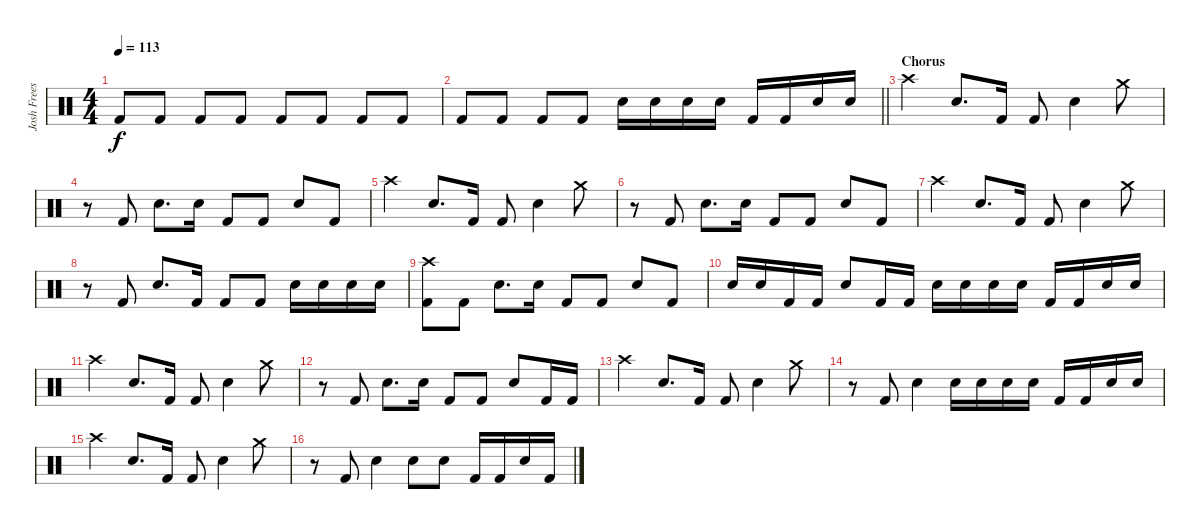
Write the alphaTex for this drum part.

\track ("Josh Freese (Studio Drummer)" "Josh Frees") {instrument percussion}
\staff {score}
\articulation defaults
\ts (4 4)
\tempo 113
\clef neutral
\ks c "Kick (hit) 2".8{dy f} "Kick (hit) 2".8 "Kick (hit) 2".8 "Kick (hit) 2".8 "Kick (hit) 2".8 "Kick (hit) 2".8 "Kick (hit) 2".8 "Kick (hit) 2".8
|
\barLineRight lightlight "Kick (hit) 2".8 "Kick (hit) 2".8 "Kick (hit) 2".8 "Kick (hit) 2".8 "Electric Snare (hit)".16 "Electric Snare (hit)".16 "Snare (hit) 2".16 "Snare (hit) 2".16 "Kick (hit) 2".16 "Kick (hit) 2".16 "Snare (hit) 2".16 "Snare (hit) 2".16
|
\section ("" "Chorus")
"Crash high (hit)".4 "Electric Snare (hit)".8{d} "Kick (hit) 2".16 "Kick (hit) 2".8 "Electric Snare (hit)".4 "Crash medium (hit)".8 |
r.8 "Kick (hit) 2".8 "Electric Snare (hit)".8{d} "Electric Snare (hit)".16 "Kick (hit) 2".8 "Kick (hit) 2".8 "Electric Snare (hit)".8 "Kick (hit) 2".8 |
"Crash high (hit)".4 "Electric Snare (hit)".8{d} "Kick (hit) 2".16 "Kick (hit) 2".8 "Electric Snare (hit)".4 "Crash medium (hit)".8 |
r.8 "Kick (hit) 2".8 "Electric Snare (hit)".8{d} "Electric Snare (hit)".16 "Kick (hit) 2".8 "Kick (hit) 2".8 "Electric Snare (hit)".8 "Kick (hit) 2".8 |
"Crash high (hit)".4 "Electric Snare (hit)".8{d} "Kick (hit) 2".16 "Kick (hit) 2".8 "Electric Snare (hit)".4 "Crash medium (hit)".8 |
r.8 "Kick (hit) 2".8 "Electric Snare (hit)".8{d} "Kick (hit) 2".16 "Kick (hit) 2".8 "Kick (hit) 2".8 "Electric Snare (hit)".16 "Electric Snare (hit)".16 "Electric Snare (hit)".16 "Electric Snare (hit)".16 |
("Crash high (hit)" "Kick (hit) 2").8 "Kick (hit) 2".8 "Electric Snare (hit)".8{d} "Electric Snare (hit)".16 "Kick (hit) 2".8 "Kick (hit) 2".8 "Electric Snare (hit)".8 "Kick (hit) 2".8 |
"Snare (hit) 2".16 "Snare (hit) 2".16 "Kick (hit) 2".16 "Kick (hit) 2".16 "Snare (hit) 2".8 "Kick (hit) 2".16 "Kick (hit) 2".16 "Snare (hit) 2".16 "Snare (hit) 2".16 "Snare (hit) 2".16 "Snare (hit) 2".16 "Kick (hit) 2".16 "Kick (hit) 2".16 "Electric Snare (hit)".16 "Electric Snare (hit)".16 |
"Crash high (hit)".4 "Electric Snare (hit)".8{d} "Kick (hit) 2".16 "Kick (hit) 2".8 "Electric Snare (hit)".4 "Crash medium (hit)".8 |
r.8 "Kick (hit) 2".8 "Electric Snare (hit)".8{d} "Electric Snare (hit)".16 "Kick (hit) 2".8 "Kick (hit) 2".8 "Electric Snare (hit)".8 "Kick (hit) 2".16 "Kick (hit) 2".16 |
"Crash high (hit)".4 "Electric Snare (hit)".8{d} "Kick (hit) 2".16 "Kick (hit) 2".8 "Electric Snare (hit)".4 "Crash medium (hit)".8 |
r.8 "Kick (hit) 2".8 "Electric Snare (hit)".4 "Snare (hit) 2".16 "Snare (hit) 2".16 "Electric Snare (hit)".16 "Electric Snare (hit)".16 "Kick (hit) 2".16 "Kick (hit) 2".16 "Electric Snare (hit)".16 "Electric Snare (hit)".16 |
"Crash high (hit)".4 "Electric Snare (hit)".8{d} "Kick (hit) 2".16 "Kick (hit) 2".8 "Electric Snare (hit)".4 "Crash medium (hit)".8 |
r.8 "Kick (hit) 2".8 "Electric Snare (hit)".4 "Electric Snare (hit)".8 "Electric Snare (hit)".8 "Kick (hit) 2".16 "Kick (hit) 2".16 "Electric Snare (hit)".16 "Kick (hit) 2".16
